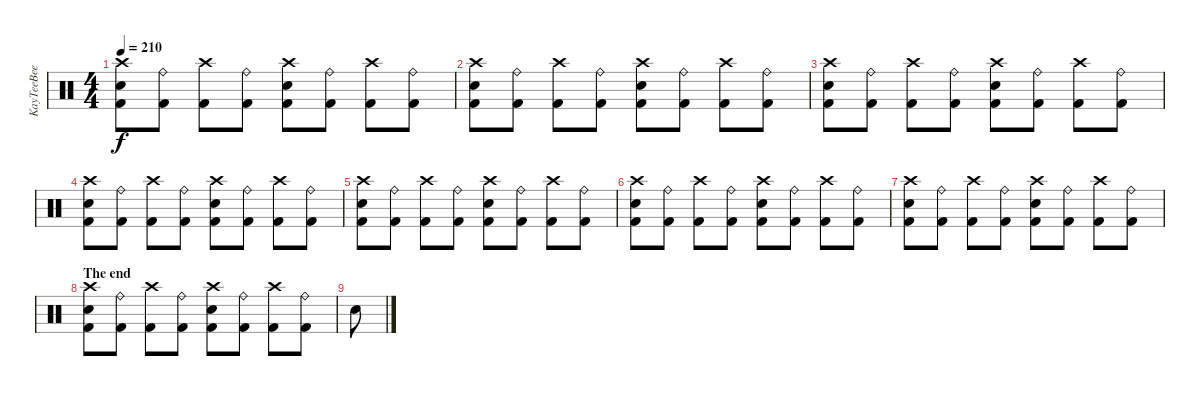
\track ("KayTeeBee" "KayTeeBee") {instrument percussion}
\staff {score}
\articulation defaults
\ts (4 4)
\tempo 210
\clef neutral
\ks c
("Kick (hit) 2" "Electric Snare (hit)" "Crash high (hit)").8{dy f} ("Kick (hit) 2" "Ride (bell)").8 ("Kick (hit) 2" "Crash high (hit)").8 ("Kick (hit) 2" "Ride (bell)").8 ("Kick (hit) 2" "Crash high (hit)" "Electric Snare (hit)").8 ("Kick (hit) 2" "Ride (bell)").8 ("Kick (hit) 2" "Crash high (hit)").8 ("Kick (hit) 2" "Ride (bell)").8 |
("Kick (hit) 2" "Electric Snare (hit)" "Crash high (hit)").8 ("Kick (hit) 2" "Ride (bell)").8 ("Kick (hit) 2" "Crash high (hit)").8 ("Kick (hit) 2" "Ride (bell)").8 ("Kick (hit) 2" "Crash high (hit)" "Electric Snare (hit)").8 ("Kick (hit) 2" "Ride (bell)").8 ("Kick (hit) 2" "Crash high (hit)").8 ("Kick (hit) 2" "Ride (bell)").8 |
("Kick (hit) 2" "Electric Snare (hit)" "Crash high (hit)").8 ("Kick (hit) 2" "Ride (bell)").8 ("Kick (hit) 2" "Crash high (hit)").8 ("Kick (hit) 2" "Ride (bell)").8 ("Kick (hit) 2" "Crash high (hit)" "Electric Snare (hit)").8 ("Kick (hit) 2" "Ride (bell)").8 ("Kick (hit) 2" "Crash high (hit)").8 ("Kick (hit) 2" "Ride (bell)").8 |
("Kick (hit) 2" "Electric Snare (hit)" "Crash high (hit)").8 ("Kick (hit) 2" "Ride (bell)").8 ("Kick (hit) 2" "Crash high (hit)").8 ("Kick (hit) 2" "Ride (bell)").8 ("Kick (hit) 2" "Crash high (hit)" "Electric Snare (hit)").8 ("Kick (hit) 2" "Ride (bell)").8 ("Kick (hit) 2" "Crash high (hit)").8 ("Kick (hit) 2" "Ride (bell)").8 |
("Kick (hit) 2" "Electric Snare (hit)" "Crash high (hit)").8 ("Kick (hit) 2" "Ride (bell)").8 ("Kick (hit) 2" "Crash high (hit)").8 ("Kick (hit) 2" "Ride (bell)").8 ("Kick (hit) 2" "Crash high (hit)" "Electric Snare (hit)").8 ("Kick (hit) 2" "Ride (bell)").8 ("Kick (hit) 2" "Crash high (hit)").8 ("Kick (hit) 2" "Ride (bell)").8 |
("Kick (hit) 2" "Electric Snare (hit)" "Crash high (hit)").8 ("Kick (hit) 2" "Ride (bell)").8 ("Kick (hit) 2" "Crash high (hit)").8 ("Kick (hit) 2" "Ride (bell)").8 ("Kick (hit) 2" "Crash high (hit)" "Electric Snare (hit)").8 ("Kick (hit) 2" "Ride (bell)").8 ("Kick (hit) 2" "Crash high (hit)").8 ("Kick (hit) 2" "Ride (bell)").8 |
("Kick (hit) 2" "Electric Snare (hit)" "Crash high (hit)").8 ("Kick (hit) 2" "Ride (bell)").8 ("Kick (hit) 2" "Crash high (hit)").8 ("Kick (hit) 2" "Ride (bell)").8 ("Kick (hit) 2" "Crash high (hit)" "Electric Snare (hit)").8 ("Kick (hit) 2" "Ride (bell)").8 ("Kick (hit) 2" "Crash high (hit)").8 ("Kick (hit) 2" "Ride (bell)").8 |
\section ("" "The end")
("Kick (hit) 2" "Electric Snare (hit)" "Crash high (hit)").8 ("Kick (hit) 2" "Ride (bell)").8 ("Kick (hit) 2" "Crash high (hit)").8 ("Kick (hit) 2" "Ride (bell)").8 ("Kick (hit) 2" "Crash high (hit)" "Electric Snare (hit)").8 ("Kick (hit) 2" "Ride (bell)").8 ("Kick (hit) 2" "Crash high (hit)").8 ("Kick (hit) 2" "Ride (bell)").8 |
"Snare (hit)".8
